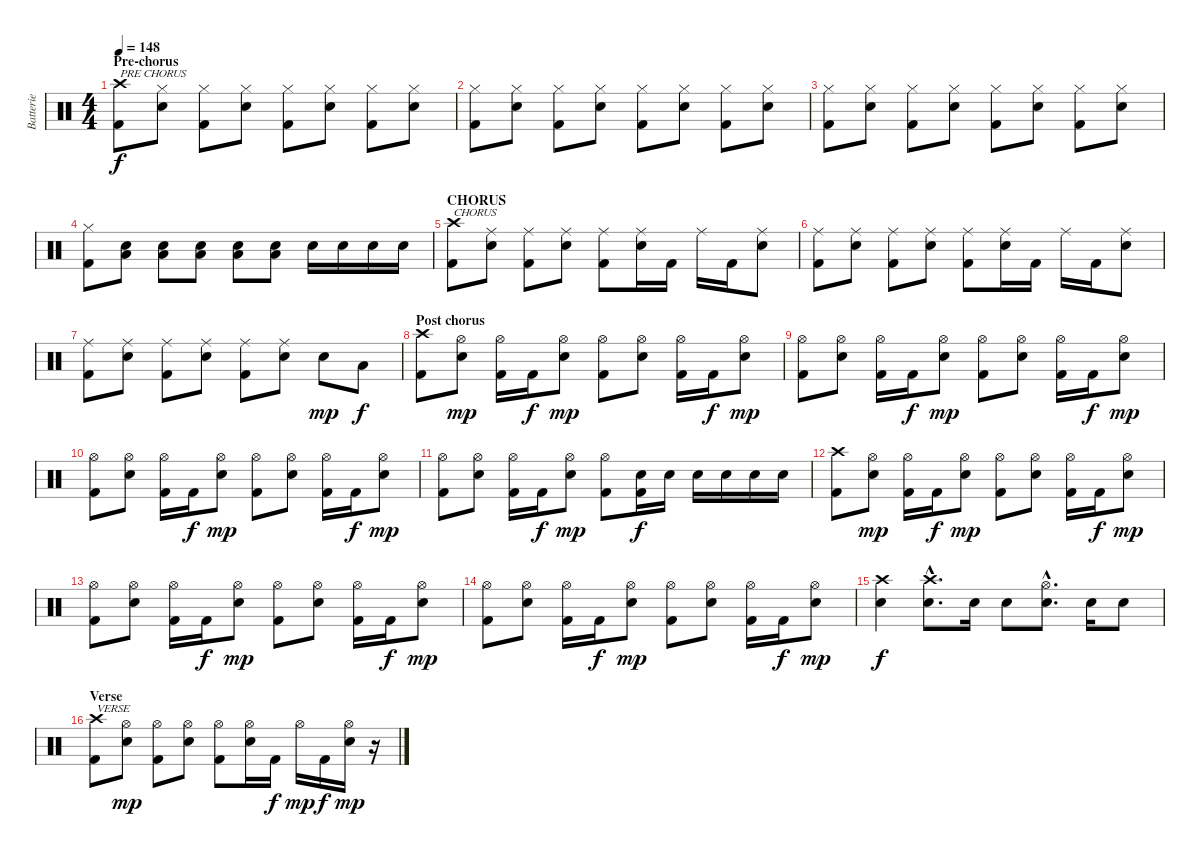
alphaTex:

\track ("Batterie" "Batterie") {instrument percussion}
\staff {score}
\articulation defaults
\ts (4 4)
\section ("" "Pre-chorus")
\tempo 148
\clef neutral
\ks c
("Crash high (hit)" "Kick (hit) 2").8{txt "PRE CHORUS" dy f} ("Hi-Hat (closed)" "Electric Snare (hit)").8 ("Hi-Hat (closed)" "Kick (hit) 2").8 ("Hi-Hat (closed)" "Electric Snare (hit)").8 ("Hi-Hat (closed)" "Kick (hit) 2").8 ("Hi-Hat (closed)" "Electric Snare (hit)").8 ("Hi-Hat (closed)" "Kick (hit) 2").8 ("Hi-Hat (closed)" "Electric Snare (hit)").8 |
("Hi-Hat (closed)" "Kick (hit) 2").8 ("Hi-Hat (closed)" "Electric Snare (hit)").8 ("Hi-Hat (closed)" "Kick (hit) 2").8 ("Hi-Hat (closed)" "Electric Snare (hit)").8 ("Hi-Hat (closed)" "Kick (hit) 2").8 ("Hi-Hat (closed)" "Electric Snare (hit)").8 ("Hi-Hat (closed)" "Kick (hit) 2").8 ("Hi-Hat (closed)" "Electric Snare (hit)").8 |
("Hi-Hat (closed)" "Kick (hit) 2").8 ("Hi-Hat (closed)" "Electric Snare (hit)").8 ("Hi-Hat (closed)" "Kick (hit) 2").8 ("Hi-Hat (closed)" "Electric Snare (hit)").8 ("Hi-Hat (closed)" "Kick (hit) 2").8 ("Hi-Hat (closed)" "Electric Snare (hit)").8 ("Hi-Hat (closed)" "Kick (hit) 2").8 ("Hi-Hat (closed)" "Electric Snare (hit)").8 |
("Hi-Hat (closed)" "Kick (hit) 2").8 ("Low Floor Tom (hit)" "Electric Snare (hit)").8 ("Low Floor Tom (hit)" "Electric Snare (hit)").8 ("Low Floor Tom (hit)" "Electric Snare (hit)").8 ("Low Floor Tom (hit)" "Electric Snare (hit)").8 ("Low Floor Tom (hit)" "Electric Snare (hit)").8 "Electric Snare (hit)".16 "Electric Snare (hit)".16 "Electric Snare (hit)".16 "Electric Snare (hit)".16 |
\section ("" "CHORUS")
("Crash high (hit)" "Kick (hit) 2").8{txt "CHORUS"} ("Ride (middle)" "Electric Snare (hit)").8 ("Ride (middle)" "Kick (hit) 2").8 ("Ride (middle)" "Electric Snare (hit)").8 ("Ride (middle)" "Kick (hit) 2").8 ("Ride (middle)" "Electric Snare (hit)").16 "Kick (hit) 2".16 "Ride (middle)".16 "Kick (hit) 2".16 ("Ride (middle)" "Electric Snare (hit)").8 |
("Ride (middle)" "Kick (hit) 2").8 ("Ride (middle)" "Electric Snare (hit)").8 ("Ride (middle)" "Kick (hit) 2").8 ("Ride (middle)" "Electric Snare (hit)").8 ("Ride (middle)" "Kick (hit) 2").8 ("Ride (middle)" "Electric Snare (hit)").16 "Kick (hit) 2".16 "Ride (middle)".16 "Kick (hit) 2".16 ("Ride (middle)" "Electric Snare (hit)").8 |
("Ride (middle)" "Kick (hit) 2").8 ("Ride (middle)" "Electric Snare (hit)").8 ("Ride (middle)" "Kick (hit) 2").8 ("Ride (middle)" "Electric Snare (hit)").8 ("Ride (middle)" "Kick (hit) 2").8 ("Ride (middle)" "Electric Snare (hit)").8 "Electric Snare (hit)".8{dy mp} "Low Tom (hit)".8{dy f} |
\section ("" "Post chorus")
("Crash high (hit)" "Kick (hit) 2").8 ("Hi-Hat (open)" "Electric Snare (hit)").8{dy mp} ("Hi-Hat (open)" "Kick (hit) 2").16 "Kick (hit) 2".16{dy f} ("Hi-Hat (open)" "Electric Snare (hit)").8{dy mp} ("Hi-Hat (open)" "Kick (hit) 2").8 ("Hi-Hat (open)" "Electric Snare (hit)").8 ("Hi-Hat (open)" "Kick (hit) 2").16 "Kick (hit) 2".16{dy f} ("Hi-Hat (open)" "Electric Snare (hit)").8{dy mp} |
("Hi-Hat (open)" "Kick (hit) 2").8 ("Hi-Hat (open)" "Electric Snare (hit)").8 ("Hi-Hat (open)" "Kick (hit) 2").16 "Kick (hit) 2".16{dy f} ("Hi-Hat (open)" "Electric Snare (hit)").8{dy mp} ("Hi-Hat (open)" "Kick (hit) 2").8 ("Hi-Hat (open)" "Electric Snare (hit)").8 ("Hi-Hat (open)" "Kick (hit) 2").16 "Kick (hit) 2".16{dy f} ("Hi-Hat (open)" "Electric Snare (hit)").8{dy mp} |
("Hi-Hat (open)" "Kick (hit) 2").8 ("Hi-Hat (open)" "Electric Snare (hit)").8 ("Hi-Hat (open)" "Kick (hit) 2").16 "Kick (hit) 2".16{dy f} ("Hi-Hat (open)" "Electric Snare (hit)").8{dy mp} ("Hi-Hat (open)" "Kick (hit) 2").8 ("Hi-Hat (open)" "Electric Snare (hit)").8 ("Hi-Hat (open)" "Kick (hit) 2").16 "Kick (hit) 2".16{dy f} ("Hi-Hat (open)" "Electric Snare (hit)").8{dy mp} |
("Hi-Hat (open)" "Kick (hit) 2").8 ("Hi-Hat (open)" "Electric Snare (hit)").8 ("Hi-Hat (open)" "Kick (hit) 2").16 "Kick (hit) 2".16{dy f} ("Hi-Hat (open)" "Electric Snare (hit)").8{dy mp} ("Hi-Hat (open)" "Kick (hit) 2").8 ("Electric Snare (hit)" "Kick (hit) 2").16{dy f} "Electric Snare (hit)".16 "Electric Snare (hit)".16 "Electric Snare (hit)".16 "Electric Snare (hit)".16 "Electric Snare (hit)".16 |
("Crash high (hit)" "Kick (hit) 2").8 ("Hi-Hat (open)" "Electric Snare (hit)").8{dy mp} ("Hi-Hat (open)" "Kick (hit) 2").16 "Kick (hit) 2".16{dy f} ("Hi-Hat (open)" "Electric Snare (hit)").8{dy mp} ("Hi-Hat (open)" "Kick (hit) 2").8 ("Hi-Hat (open)" "Electric Snare (hit)").8 ("Hi-Hat (open)" "Kick (hit) 2").16 "Kick (hit) 2".16{dy f} ("Hi-Hat (open)" "Electric Snare (hit)").8{dy mp} |
("Hi-Hat (open)" "Kick (hit) 2").8 ("Hi-Hat (open)" "Electric Snare (hit)").8 ("Hi-Hat (open)" "Kick (hit) 2").16 "Kick (hit) 2".16{dy f} ("Hi-Hat (open)" "Electric Snare (hit)").8{dy mp} ("Hi-Hat (open)" "Kick (hit) 2").8 ("Hi-Hat (open)" "Electric Snare (hit)").8 ("Hi-Hat (open)" "Kick (hit) 2").16 "Kick (hit) 2".16{dy f} ("Hi-Hat (open)" "Electric Snare (hit)").8{dy mp} |
("Hi-Hat (open)" "Kick (hit) 2").8 ("Hi-Hat (open)" "Electric Snare (hit)").8 ("Hi-Hat (open)" "Kick (hit) 2").16 "Kick (hit) 2".16{dy f} ("Hi-Hat (open)" "Electric Snare (hit)").8{dy mp} ("Hi-Hat (open)" "Kick (hit) 2").8 ("Hi-Hat (open)" "Electric Snare (hit)").8 ("Hi-Hat (open)" "Kick (hit) 2").16 "Kick (hit) 2".16{dy f} ("Hi-Hat (open)" "Electric Snare (hit)").8{dy mp} |
("Crash high (hit)" "Electric Snare (hit)").4{dy f} ("Crash high (hit)"{hac} "Electric Snare (hit)"{hac}).8{d} "Electric Snare (hit)".16 "Electric Snare (hit)".8 ("Electric Snare (hit)"{hac} "Hi-Hat (open)"{hac}).8{d} "Electric Snare (hit)".16 "Electric Snare (hit)".8 |
\section ("" "Verse")
("Crash high (hit)" "Kick (hit) 2").8{txt "VERSE"} ("Hi-Hat (open)" "Electric Snare (hit)").8{dy mp} ("Hi-Hat (open)" "Kick (hit) 2").8 ("Hi-Hat (open)" "Electric Snare (hit)").8 ("Hi-Hat (open)" "Kick (hit) 2").8 ("Hi-Hat (open)" "Electric Snare (hit)").16 "Kick (hit) 2".16{dy f} "Hi-Hat (open)".16{dy mp} "Kick (hit) 2".16{dy f} ("Hi-Hat (open)" "Electric Snare (hit)").16{dy mp} r.16
